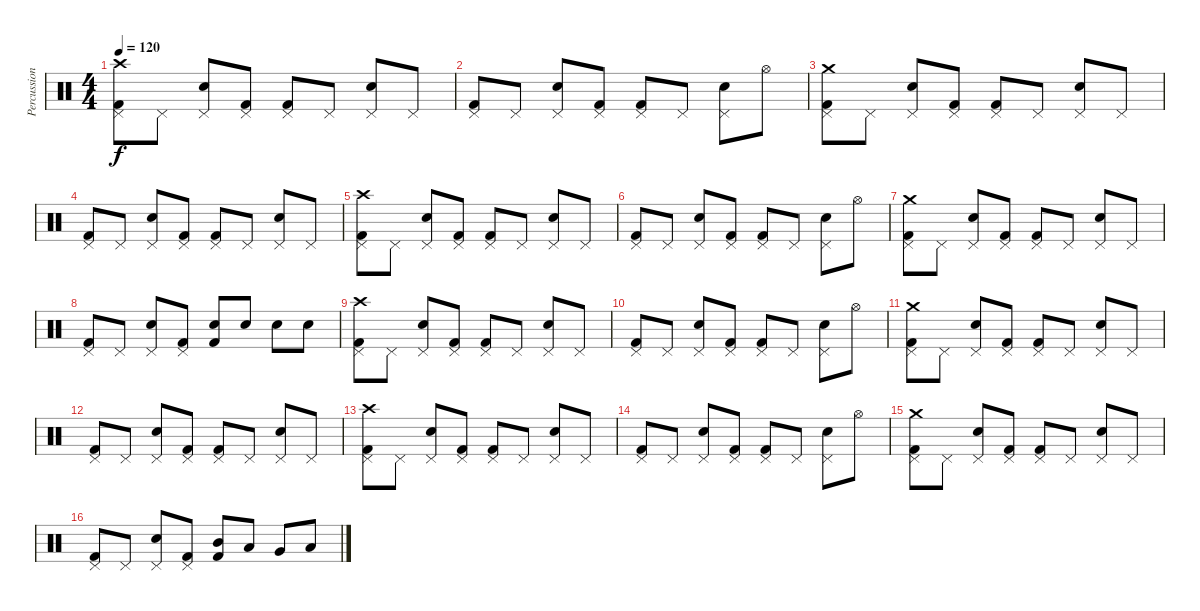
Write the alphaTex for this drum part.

\track ("Percussion" "Percussion") {instrument percussion}
\staff {score}
\articulation defaults
\ts (4 4)
\tempo 120
\clef neutral
\ks c
("Crash high (hit)" "Pedal Hi-Hat (hit)" "Kick (hit) 2").8{dy f} "Pedal Hi-Hat (hit)".8 ("Snare (hit) 2" "Pedal Hi-Hat (hit)").8 ("Pedal Hi-Hat (hit)" "Kick (hit) 2").8 ("Pedal Hi-Hat (hit)" "Kick (hit) 2").8 "Pedal Hi-Hat (hit)".8 ("Snare (hit) 2" "Pedal Hi-Hat (hit)").8 "Pedal Hi-Hat (hit)".8 |
("Pedal Hi-Hat (hit)" "Kick (hit) 2").8 "Pedal Hi-Hat (hit)".8 ("Snare (hit) 2" "Pedal Hi-Hat (hit)").8 ("Pedal Hi-Hat (hit)" "Kick (hit) 2").8 ("Pedal Hi-Hat (hit)" "Kick (hit) 2").8 "Pedal Hi-Hat (hit)".8 ("Snare (hit) 2" "Pedal Hi-Hat (hit)").8 "Hi-Hat (open)".8 |
("Crash medium (hit)" "Pedal Hi-Hat (hit)" "Kick (hit) 2").8 "Pedal Hi-Hat (hit)".8 ("Snare (hit) 2" "Pedal Hi-Hat (hit)").8 ("Pedal Hi-Hat (hit)" "Kick (hit) 2").8 ("Pedal Hi-Hat (hit)" "Kick (hit) 2").8 "Pedal Hi-Hat (hit)".8 ("Snare (hit) 2" "Pedal Hi-Hat (hit)").8 "Pedal Hi-Hat (hit)".8 |
("Pedal Hi-Hat (hit)" "Kick (hit) 2").8 "Pedal Hi-Hat (hit)".8 ("Snare (hit) 2" "Pedal Hi-Hat (hit)").8 ("Pedal Hi-Hat (hit)" "Kick (hit) 2").8 ("Pedal Hi-Hat (hit)" "Kick (hit) 2").8 "Pedal Hi-Hat (hit)".8 ("Snare (hit) 2" "Pedal Hi-Hat (hit)").8 "Pedal Hi-Hat (hit)".8 |
("Crash high (hit)" "Pedal Hi-Hat (hit)" "Kick (hit) 2").8 "Pedal Hi-Hat (hit)".8 ("Snare (hit) 2" "Pedal Hi-Hat (hit)").8 ("Pedal Hi-Hat (hit)" "Kick (hit) 2").8 ("Pedal Hi-Hat (hit)" "Kick (hit) 2").8 "Pedal Hi-Hat (hit)".8 ("Snare (hit) 2" "Pedal Hi-Hat (hit)").8 "Pedal Hi-Hat (hit)".8 |
("Pedal Hi-Hat (hit)" "Kick (hit) 2").8 "Pedal Hi-Hat (hit)".8 ("Snare (hit) 2" "Pedal Hi-Hat (hit)").8 ("Pedal Hi-Hat (hit)" "Kick (hit) 2").8 ("Pedal Hi-Hat (hit)" "Kick (hit) 2").8 "Pedal Hi-Hat (hit)".8 ("Snare (hit) 2" "Pedal Hi-Hat (hit)").8 "Hi-Hat (open)".8 |
("Crash medium (hit)" "Pedal Hi-Hat (hit)" "Kick (hit) 2").8 "Pedal Hi-Hat (hit)".8 ("Snare (hit) 2" "Pedal Hi-Hat (hit)").8 ("Pedal Hi-Hat (hit)" "Kick (hit) 2").8 ("Pedal Hi-Hat (hit)" "Kick (hit) 2").8 "Pedal Hi-Hat (hit)".8 ("Snare (hit) 2" "Pedal Hi-Hat (hit)").8 "Pedal Hi-Hat (hit)".8 |
("Pedal Hi-Hat (hit)" "Kick (hit) 2").8 "Pedal Hi-Hat (hit)".8 ("Snare (hit) 2" "Pedal Hi-Hat (hit)").8 ("Pedal Hi-Hat (hit)" "Kick (hit) 2").8 ("Snare (hit) 2" "Kick (hit) 2").8 "Snare (hit) 2".8 "Snare (hit) 2".8 "Snare (hit) 2".8 |
("Crash high (hit)" "Pedal Hi-Hat (hit)" "Kick (hit) 2").8 "Pedal Hi-Hat (hit)".8 ("Snare (hit) 2" "Pedal Hi-Hat (hit)").8 ("Pedal Hi-Hat (hit)" "Kick (hit) 2").8 ("Pedal Hi-Hat (hit)" "Kick (hit) 2").8 "Pedal Hi-Hat (hit)".8 ("Snare (hit) 2" "Pedal Hi-Hat (hit)").8 "Pedal Hi-Hat (hit)".8 |
("Pedal Hi-Hat (hit)" "Kick (hit) 2").8 "Pedal Hi-Hat (hit)".8 ("Snare (hit) 2" "Pedal Hi-Hat (hit)").8 ("Pedal Hi-Hat (hit)" "Kick (hit) 2").8 ("Pedal Hi-Hat (hit)" "Kick (hit) 2").8 "Pedal Hi-Hat (hit)".8 ("Snare (hit) 2" "Pedal Hi-Hat (hit)").8 "Hi-Hat (open)".8 |
("Crash medium (hit)" "Pedal Hi-Hat (hit)" "Kick (hit) 2").8 "Pedal Hi-Hat (hit)".8 ("Snare (hit) 2" "Pedal Hi-Hat (hit)").8 ("Pedal Hi-Hat (hit)" "Kick (hit) 2").8 ("Pedal Hi-Hat (hit)" "Kick (hit) 2").8 "Pedal Hi-Hat (hit)".8 ("Snare (hit) 2" "Pedal Hi-Hat (hit)").8 "Pedal Hi-Hat (hit)".8 |
("Pedal Hi-Hat (hit)" "Kick (hit) 2").8 "Pedal Hi-Hat (hit)".8 ("Snare (hit) 2" "Pedal Hi-Hat (hit)").8 ("Pedal Hi-Hat (hit)" "Kick (hit) 2").8 ("Pedal Hi-Hat (hit)" "Kick (hit) 2").8 "Pedal Hi-Hat (hit)".8 ("Snare (hit) 2" "Pedal Hi-Hat (hit)").8 "Pedal Hi-Hat (hit)".8 |
("Crash high (hit)" "Pedal Hi-Hat (hit)" "Kick (hit) 2").8 "Pedal Hi-Hat (hit)".8 ("Snare (hit) 2" "Pedal Hi-Hat (hit)").8 ("Pedal Hi-Hat (hit)" "Kick (hit) 2").8 ("Pedal Hi-Hat (hit)" "Kick (hit) 2").8 "Pedal Hi-Hat (hit)".8 ("Snare (hit) 2" "Pedal Hi-Hat (hit)").8 "Pedal Hi-Hat (hit)".8 |
("Pedal Hi-Hat (hit)" "Kick (hit) 2").8 "Pedal Hi-Hat (hit)".8 ("Snare (hit) 2" "Pedal Hi-Hat (hit)").8 ("Pedal Hi-Hat (hit)" "Kick (hit) 2").8 ("Pedal Hi-Hat (hit)" "Kick (hit) 2").8 "Pedal Hi-Hat (hit)".8 ("Snare (hit) 2" "Pedal Hi-Hat (hit)").8 "Hi-Hat (open)".8 |
("Crash medium (hit)" "Pedal Hi-Hat (hit)" "Kick (hit) 2").8 "Pedal Hi-Hat (hit)".8 ("Snare (hit) 2" "Pedal Hi-Hat (hit)").8 ("Pedal Hi-Hat (hit)" "Kick (hit) 2").8 ("Pedal Hi-Hat (hit)" "Kick (hit) 2").8 "Pedal Hi-Hat (hit)".8 ("Snare (hit) 2" "Pedal Hi-Hat (hit)").8 "Pedal Hi-Hat (hit)".8 |
("Pedal Hi-Hat (hit)" "Kick (hit) 2").8 "Pedal Hi-Hat (hit)".8 ("Snare (hit) 2" "Pedal Hi-Hat (hit)").8 ("Pedal Hi-Hat (hit)" "Kick (hit) 2").8 ("Mid Tom (hit)" "Kick (hit) 2").8 "Low Tom (hit)".8 "Very Low Tom (hit)".8 "Low Floor Tom (hit)".8
